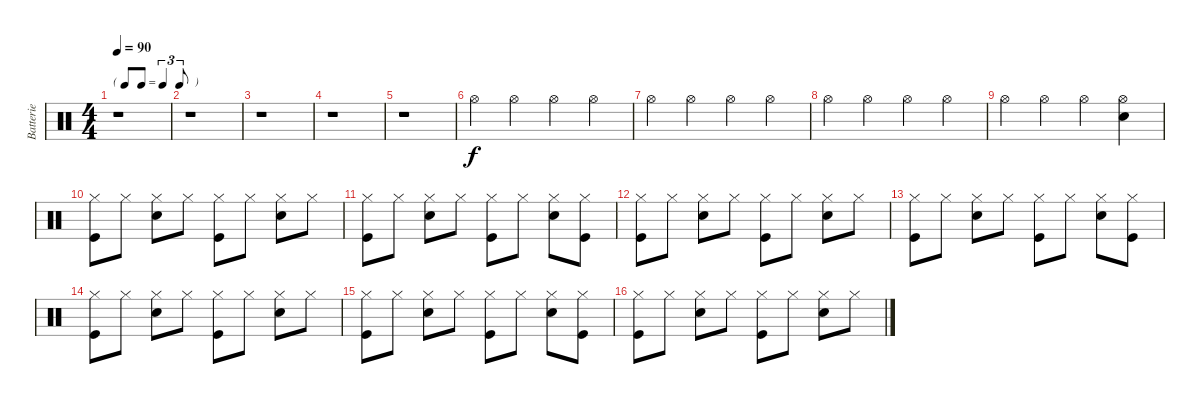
\track ("Batterie" "Batterie") {instrument percussion}
\staff {score}
\articulation defaults
\ts (4 4)
\tf triplet8th
\tempo 90
\clef neutral
\ks c
r.1{dy f} |
r.1 |
r.1 |
r.1 |
r.1 |
"Hi-Hat (open)".4 "Hi-Hat (open)".4 "Hi-Hat (open)".4 "Hi-Hat (open)".4 |
"Hi-Hat (open)".4 "Hi-Hat (open)".4 "Hi-Hat (open)".4 "Hi-Hat (open)".4 |
"Hi-Hat (open)".4 "Hi-Hat (open)".4 "Hi-Hat (open)".4 "Hi-Hat (open)".4 |
"Hi-Hat (open)".4 "Hi-Hat (open)".4 "Hi-Hat (open)".4 ("Hi-Hat (open)" "Snare (hit) 2").4 |
("Hi-Hat (closed)" "Kick (hit)").8 "Hi-Hat (closed)".8 ("Hi-Hat (closed)" "Snare (hit) 2").8 "Hi-Hat (closed)".8 ("Hi-Hat (closed)" "Kick (hit)").8 "Hi-Hat (closed)".8 ("Hi-Hat (closed)" "Snare (hit) 2").8 "Hi-Hat (closed)".8 |
("Hi-Hat (closed)" "Kick (hit)").8 "Hi-Hat (closed)".8 ("Hi-Hat (closed)" "Snare (hit) 2").8 "Hi-Hat (closed)".8 ("Hi-Hat (closed)" "Kick (hit)").8 "Hi-Hat (closed)".8 ("Hi-Hat (closed)" "Snare (hit) 2").8 ("Hi-Hat (closed)" "Kick (hit)").8 |
("Hi-Hat (closed)" "Kick (hit)").8 "Hi-Hat (closed)".8 ("Hi-Hat (closed)" "Snare (hit) 2").8 "Hi-Hat (closed)".8 ("Hi-Hat (closed)" "Kick (hit)").8 "Hi-Hat (closed)".8 ("Hi-Hat (closed)" "Snare (hit) 2").8 "Hi-Hat (closed)".8 |
("Hi-Hat (closed)" "Kick (hit)").8 "Hi-Hat (closed)".8 ("Hi-Hat (closed)" "Snare (hit) 2").8 "Hi-Hat (closed)".8 ("Hi-Hat (closed)" "Kick (hit)").8 "Hi-Hat (closed)".8 ("Hi-Hat (closed)" "Snare (hit) 2").8 ("Hi-Hat (closed)" "Kick (hit)").8 |
("Hi-Hat (closed)" "Kick (hit)").8 "Hi-Hat (closed)".8 ("Hi-Hat (closed)" "Snare (hit) 2").8 "Hi-Hat (closed)".8 ("Hi-Hat (closed)" "Kick (hit)").8 "Hi-Hat (closed)".8 ("Hi-Hat (closed)" "Snare (hit) 2").8 "Hi-Hat (closed)".8 |
("Hi-Hat (closed)" "Kick (hit)").8 "Hi-Hat (closed)".8 ("Hi-Hat (closed)" "Snare (hit) 2").8 "Hi-Hat (closed)".8 ("Hi-Hat (closed)" "Kick (hit)").8 "Hi-Hat (closed)".8 ("Hi-Hat (closed)" "Snare (hit) 2").8 ("Hi-Hat (closed)" "Kick (hit)").8 |
("Hi-Hat (closed)" "Kick (hit)").8 "Hi-Hat (closed)".8 ("Hi-Hat (closed)" "Snare (hit) 2").8 "Hi-Hat (closed)".8 ("Hi-Hat (closed)" "Kick (hit)").8 "Hi-Hat (closed)".8 ("Hi-Hat (closed)" "Snare (hit) 2").8 "Hi-Hat (closed)".8
